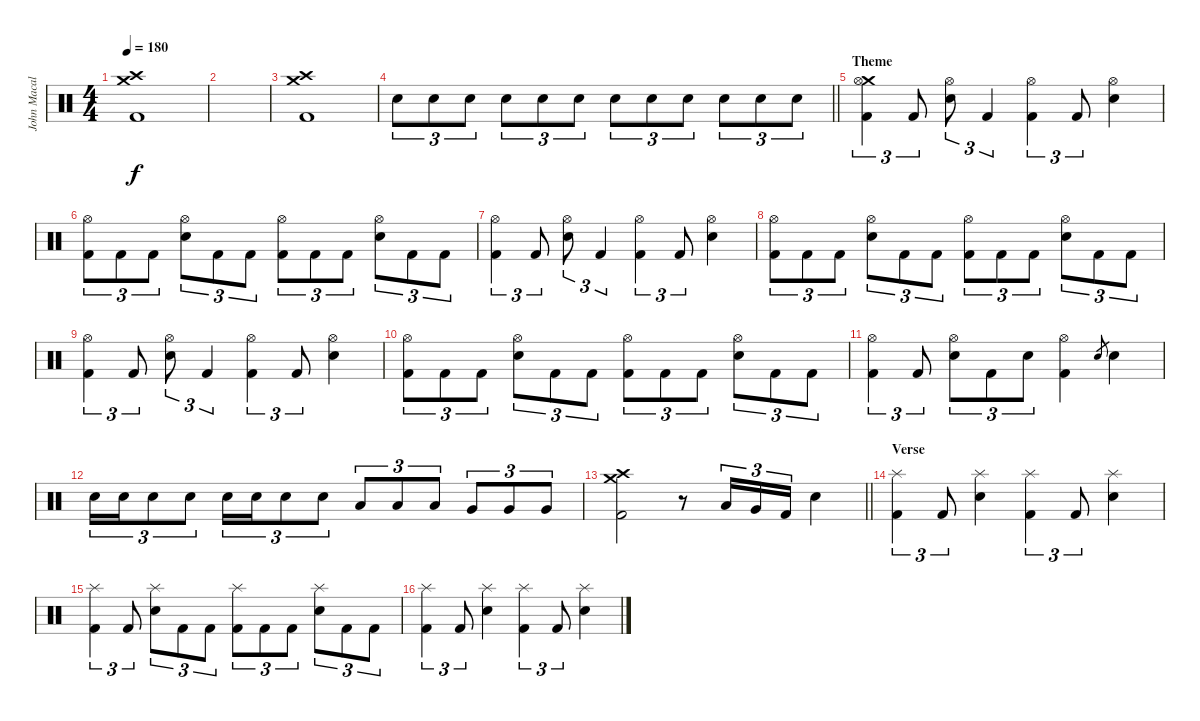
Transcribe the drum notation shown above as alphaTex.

\track ("John Macaluso" "John Macal") {instrument percussion}
\staff {score}
\articulation defaults
\ts (4 4)
\tempo 180
\clef neutral
\ks c
("Crash medium (hit)" "Crash high (hit)" "Kick (hit) 2").1{dy f} |
|
("Crash medium (hit)" "Crash high (hit)" "Kick (hit) 2").1 |
\barLineRight lightlight "Snare (hit) 2".8{tu (3 2)} "Snare (hit) 2".8{tu (3 2)} "Snare (hit) 2".8{tu (3 2)} "Snare (hit) 2".8{tu (3 2)} "Snare (hit) 2".8{tu (3 2)} "Snare (hit) 2".8{tu (3 2)} "Snare (hit) 2".8{tu (3 2)} "Snare (hit) 2".8{tu (3 2)} "Snare (hit) 2".8{tu (3 2)} "Snare (hit) 2".8{tu (3 2)} "Snare (hit) 2".8{tu (3 2)} "Snare (hit) 2".8{tu (3 2)}
|
\section ("" "Theme")
("Crash medium (hit)" "Hi-Hat (open)" "Kick (hit) 2").4{tu (3 2)} "Kick (hit) 2".8{tu (3 2)} ("Hi-Hat (open)" "Snare (hit) 2").8{tu (3 2)} "Kick (hit) 2".4{tu (3 2)} ("Hi-Hat (open)" "Kick (hit) 2").4{tu (3 2)} "Kick (hit) 2".8{tu (3 2)} ("Hi-Hat (open)" "Snare (hit) 2").4 |
("Hi-Hat (open)" "Kick (hit) 2").8{tu (3 2)} "Kick (hit) 2".8{tu (3 2)} "Kick (hit) 2".8{tu (3 2)} ("Hi-Hat (open)" "Snare (hit) 2").8{tu (3 2)} "Kick (hit) 2".8{tu (3 2)} "Kick (hit) 2".8{tu (3 2)} ("Hi-Hat (open)" "Kick (hit) 2").8{tu (3 2)} "Kick (hit) 2".8{tu (3 2)} "Kick (hit) 2".8{tu (3 2)} ("Hi-Hat (open)" "Snare (hit) 2").8{tu (3 2)} "Kick (hit) 2".8{tu (3 2)} "Kick (hit) 2".8{tu (3 2)} |
("Hi-Hat (open)" "Kick (hit) 2").4{tu (3 2)} "Kick (hit) 2".8{tu (3 2)} ("Hi-Hat (open)" "Snare (hit) 2").8{tu (3 2)} "Kick (hit) 2".4{tu (3 2)} ("Hi-Hat (open)" "Kick (hit) 2").4{tu (3 2)} "Kick (hit) 2".8{tu (3 2)} ("Hi-Hat (open)" "Snare (hit) 2").4 |
("Hi-Hat (open)" "Kick (hit) 2").8{tu (3 2)} "Kick (hit) 2".8{tu (3 2)} "Kick (hit) 2".8{tu (3 2)} ("Hi-Hat (open)" "Snare (hit) 2").8{tu (3 2)} "Kick (hit) 2".8{tu (3 2)} "Kick (hit) 2".8{tu (3 2)} ("Hi-Hat (open)" "Kick (hit) 2").8{tu (3 2)} "Kick (hit) 2".8{tu (3 2)} "Kick (hit) 2".8{tu (3 2)} ("Hi-Hat (open)" "Snare (hit) 2").8{tu (3 2)} "Kick (hit) 2".8{tu (3 2)} "Kick (hit) 2".8{tu (3 2)} |
("Hi-Hat (open)" "Kick (hit) 2").4{tu (3 2)} "Kick (hit) 2".8{tu (3 2)} ("Hi-Hat (open)" "Snare (hit) 2").8{tu (3 2)} "Kick (hit) 2".4{tu (3 2)} ("Hi-Hat (open)" "Kick (hit) 2").4{tu (3 2)} "Kick (hit) 2".8{tu (3 2)} ("Hi-Hat (open)" "Snare (hit) 2").4 |
("Hi-Hat (open)" "Kick (hit) 2").8{tu (3 2)} "Kick (hit) 2".8{tu (3 2)} "Kick (hit) 2".8{tu (3 2)} ("Hi-Hat (open)" "Snare (hit) 2").8{tu (3 2)} "Kick (hit) 2".8{tu (3 2)} "Kick (hit) 2".8{tu (3 2)} ("Hi-Hat (open)" "Kick (hit) 2").8{tu (3 2)} "Kick (hit) 2".8{tu (3 2)} "Kick (hit) 2".8{tu (3 2)} ("Hi-Hat (open)" "Snare (hit) 2").8{tu (3 2)} "Kick (hit) 2".8{tu (3 2)} "Kick (hit) 2".8{tu (3 2)} |
("Hi-Hat (open)" "Kick (hit) 2").4{tu (3 2)} "Kick (hit) 2".8{tu (3 2)} ("Hi-Hat (open)" "Snare (hit) 2").8{tu (3 2)} "Kick (hit) 2".8{tu (3 2)} "Snare (hit) 2".8{tu (3 2)} ("Hi-Hat (open)" "Kick (hit) 2").4 "Snare (hit) 2".8{gr} "Snare (hit) 2".4 |
"Snare (hit) 2".16{tu (3 2)} "Snare (hit) 2".16{tu (3 2)} "Snare (hit) 2".8{tu (3 2)} "Snare (hit) 2".8{tu (3 2)} "Snare (hit) 2".16{tu (3 2)} "Snare (hit) 2".16{tu (3 2)} "Snare (hit) 2".8{tu (3 2)} "Snare (hit) 2".8{tu (3 2)} "Low Tom (hit)".8{tu (3 2)} "Low Tom (hit)".8{tu (3 2)} "Low Tom (hit)".8{tu (3 2)} "Very Low Tom (hit)".8{tu (3 2)} "Very Low Tom (hit)".8{tu (3 2)} "Very Low Tom (hit)".8{tu (3 2)} |
\barLineRight lightlight
("Crash medium (hit)" "Crash high (hit)" "Kick (hit) 2").2 r.8 "Low Tom (hit)".16{tu (3 2)} "Very Low Tom (hit)".16{tu (3 2)} "Kick (hit) 2".16{tu (3 2)} "Snare (hit) 2".4 |
\section ("" "Verse")
("Splash (hit)" "Kick (hit) 2").4{tu (3 2)} "Kick (hit) 2".8{tu (3 2)} ("Splash (hit)" "Snare (hit) 2").4 ("Splash (hit)" "Kick (hit) 2").4{tu (3 2)} "Kick (hit) 2".8{tu (3 2)} ("Splash (hit)" "Snare (hit) 2").4 |
("Splash (hit)" "Kick (hit) 2").4{tu (3 2)} "Kick (hit) 2".8{tu (3 2)} ("Splash (hit)" "Snare (hit) 2").8{tu (3 2)} "Kick (hit) 2".8{tu (3 2)} "Kick (hit) 2".8{tu (3 2)} ("Splash (hit)" "Kick (hit) 2").8{tu (3 2)} "Kick (hit) 2".8{tu (3 2)} "Kick (hit) 2".8{tu (3 2)} ("Splash (hit)" "Snare (hit) 2").8{tu (3 2)} "Kick (hit) 2".8{tu (3 2)} "Kick (hit) 2".8{tu (3 2)} |
("Splash (hit)" "Kick (hit) 2").4{tu (3 2)} "Kick (hit) 2".8{tu (3 2)} ("Splash (hit)" "Snare (hit) 2").4 ("Splash (hit)" "Kick (hit) 2").4{tu (3 2)} "Kick (hit) 2".8{tu (3 2)} ("Splash (hit)" "Snare (hit) 2").4
